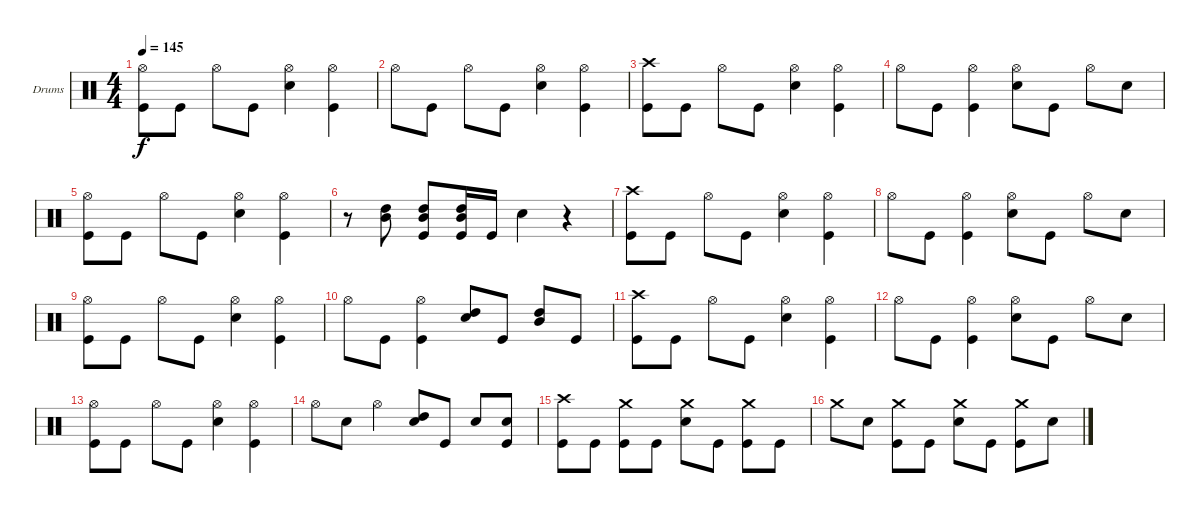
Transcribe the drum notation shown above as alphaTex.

\bracketExtendMode groupsimilarinstruments
\firstSystemTrackNameOrientation horizontal
\otherSystemsTrackNameOrientation horizontal
\track ("Drumkit" "Drums") {instrument percussion}
\staff {score}
\articulation defaults
\ts (4 4)
\tempo 145
\clef neutral
\ks c
("Hi-Hat (open)" "Kick (hit)").8{dy f} "Kick (hit)".8 "Hi-Hat (open)".8 "Kick (hit)".8 ("Hi-Hat (open)" "Snare (hit) 2").4 ("Hi-Hat (open)" "Kick (hit)").4 |
"Hi-Hat (open)".8 "Kick (hit)".8 "Hi-Hat (open)".8 "Kick (hit)".8 ("Hi-Hat (open)" "Snare (hit) 2").4 ("Hi-Hat (open)" "Kick (hit)").4 |
("Crash high (hit)" "Kick (hit)").8 "Kick (hit)".8 "Hi-Hat (open)".8 "Kick (hit)".8 ("Hi-Hat (open)" "Snare (hit) 2").4 ("Hi-Hat (open)" "Kick (hit)").4 |
"Hi-Hat (open)".8 "Kick (hit)".8 ("Hi-Hat (open)" "Kick (hit)").4 ("Hi-Hat (open)" "Snare (hit) 2").8 "Kick (hit)".8 "Hi-Hat (open)".8 "Snare (hit) 2".8 |
("Hi-Hat (open)" "Kick (hit)").8 "Kick (hit)".8 "Hi-Hat (open)".8 "Kick (hit)".8 ("Hi-Hat (open)" "Snare (hit) 2").4 ("Hi-Hat (open)" "Kick (hit)").4 |
r.8 ("High Tom (hit)" "Mid Tom (hit)").8 ("High Tom (hit)" "Mid Tom (hit)" "Kick (hit)").8 ("High Tom (hit)" "Mid Tom (hit)" "Kick (hit)").16 "Kick (hit)".16 "Snare (hit) 2".4 r.4 |
("Crash high (hit)" "Kick (hit)").8 "Kick (hit)".8 "Hi-Hat (open)".8 "Kick (hit)".8 ("Hi-Hat (open)" "Snare (hit) 2").4 ("Hi-Hat (open)" "Kick (hit)").4 |
"Hi-Hat (open)".8 "Kick (hit)".8 ("Hi-Hat (open)" "Kick (hit)").4 ("Hi-Hat (open)" "Snare (hit) 2").8 "Kick (hit)".8 "Hi-Hat (open)".8 "Snare (hit) 2".8 |
("Hi-Hat (open)" "Kick (hit)").8 "Kick (hit)".8 "Hi-Hat (open)".8 "Kick (hit)".8 ("Hi-Hat (open)" "Snare (hit) 2").4 ("Hi-Hat (open)" "Kick (hit)").4 |
"Hi-Hat (open)".8 "Kick (hit)".8 ("Hi-Hat (open)" "Kick (hit)").4 ("Snare (hit) 2" "High Tom (hit)").8 "Kick (hit)".8 ("High Tom (hit)" "Mid Tom (hit)").8 "Kick (hit)".8 |
("Crash high (hit)" "Kick (hit)").8 "Kick (hit)".8 "Hi-Hat (open)".8 "Kick (hit)".8 ("Hi-Hat (open)" "Snare (hit) 2").4 ("Hi-Hat (open)" "Kick (hit)").4 |
"Hi-Hat (open)".8 "Kick (hit)".8 ("Hi-Hat (open)" "Kick (hit)").4 ("Hi-Hat (open)" "Snare (hit) 2").8 "Kick (hit)".8 "Hi-Hat (open)".8 "Snare (hit) 2".8 |
("Hi-Hat (open)" "Kick (hit)").8 "Kick (hit)".8 "Hi-Hat (open)".8 "Kick (hit)".8 ("Hi-Hat (open)" "Snare (hit) 2").4 ("Hi-Hat (open)" "Kick (hit)").4 |
"Hi-Hat (open)".8 "Snare (hit) 2".8 "Hi-Hat (open)".4 ("Snare (hit) 2" "High Tom (hit)").8 "Kick (hit)".8 "Snare (hit) 2".8 ("Kick (hit)" "Snare (hit) 2").8 |
("Crash high (hit)" "Kick (hit)").8 "Kick (hit)".8 ("Kick (hit)" "Crash medium (hit)").8 "Kick (hit)".8 ("Snare (hit) 2" "Crash medium (hit)").8 "Kick (hit)".8 ("Kick (hit)" "Crash medium (hit)").8 "Kick (hit)".8 |
"Crash medium (hit)".8 "Snare (hit) 2".8 ("Crash medium (hit)" "Kick (hit)").8 "Kick (hit)".8 ("Crash medium (hit)" "Snare (hit) 2").8 "Kick (hit)".8 ("Crash medium (hit)" "Kick (hit)").8 "Snare (hit) 2".8
